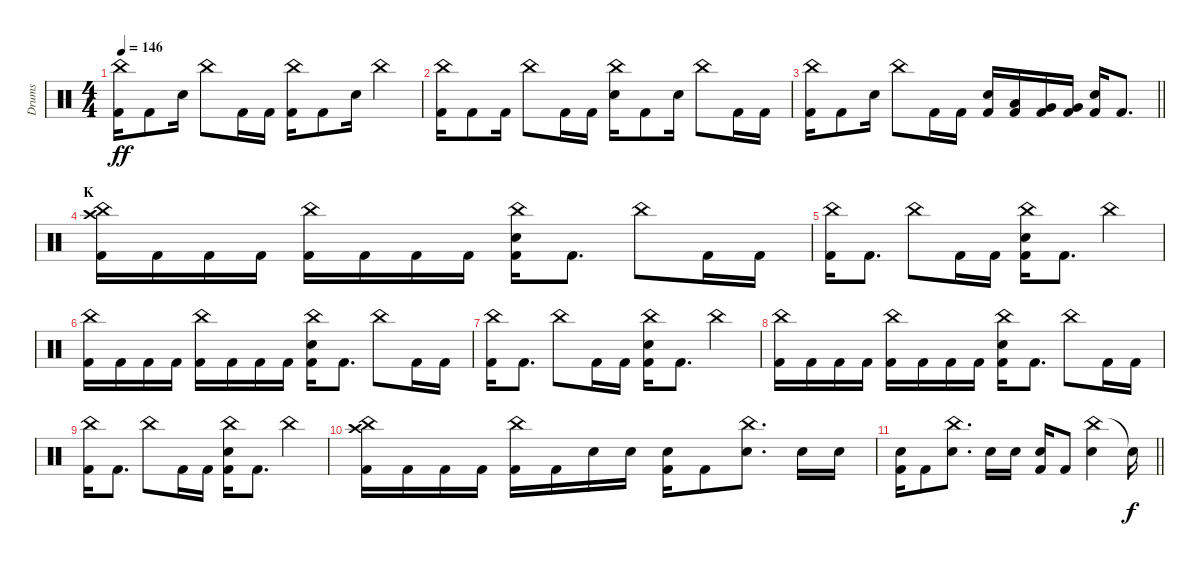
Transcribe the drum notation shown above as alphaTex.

\track ("Drums" "Drums") {instrument percussion}
\staff {score}
\articulation defaults
\ts (4 4)
\tempo 146
\clef neutral
\ks c
("China (hit)" "Kick (hit) 2").16{dy ff} "Kick (hit) 2".8 "Electric Snare (hit)".16 "China (hit)".8 "Kick (hit) 2".16 "Kick (hit) 2".16 ("China (hit)" "Kick (hit) 2").16 "Kick (hit) 2".8 "Electric Snare (hit)".16 "China (hit)".4 |
("China (hit)" "Kick (hit) 2").16 "Kick (hit) 2".8 "Kick (hit) 2".16 "China (hit)".8 "Kick (hit) 2".16 "Kick (hit) 2".16 ("China (hit)" "Electric Snare (hit)").16 "Kick (hit) 2".8 "Electric Snare (hit)".16 "China (hit)".8 "Kick (hit) 2".16 "Kick (hit) 2".16 |
\barLineRight lightlight
("China (hit)" "Kick (hit) 2").16 "Kick (hit) 2".8 "Electric Snare (hit)".16 "China (hit)".8 "Kick (hit) 2".16 "Kick (hit) 2".16 ("Electric Snare (hit)" "Kick (hit) 2").16 ("Low Tom (hit)" "Kick (hit) 2").16 ("Very Low Tom (hit)" "Kick (hit) 2").16 ("Very Low Tom (hit)" "Kick (hit) 2").16 ("Electric Snare (hit)" "Kick (hit) 2").16 "Kick (hit) 2".8{d} |
\section ("" "K")
("Crash high (hit)" "China (hit)" "Kick (hit) 2").16 "Kick (hit) 2".16 "Kick (hit) 2".16 "Kick (hit) 2".16 ("China (hit)" "Kick (hit) 2").16 "Kick (hit) 2".16 "Kick (hit) 2".16 "Kick (hit) 2".16 ("China (hit)" "Electric Snare (hit)" "Kick (hit) 2").16 "Kick (hit) 2".8{d} "China (hit)".8 "Kick (hit) 2".16 "Kick (hit) 2".16 |
("China (hit)" "Kick (hit) 2").16 "Kick (hit) 2".8{d} "China (hit)".8 "Kick (hit) 2".16 "Kick (hit) 2".16 ("China (hit)" "Electric Snare (hit)" "Kick (hit) 2").16 "Kick (hit) 2".8{d} "China (hit)".4 |
("China (hit)" "Kick (hit) 2").16 "Kick (hit) 2".16 "Kick (hit) 2".16 "Kick (hit) 2".16 ("China (hit)" "Kick (hit) 2").16 "Kick (hit) 2".16 "Kick (hit) 2".16 "Kick (hit) 2".16 ("China (hit)" "Electric Snare (hit)" "Kick (hit) 2").16 "Kick (hit) 2".8{d} "China (hit)".8 "Kick (hit) 2".16 "Kick (hit) 2".16 |
("China (hit)" "Kick (hit) 2").16 "Kick (hit) 2".8{d} "China (hit)".8 "Kick (hit) 2".16 "Kick (hit) 2".16 ("China (hit)" "Electric Snare (hit)" "Kick (hit) 2").16 "Kick (hit) 2".8{d} "China (hit)".4 |
("China (hit)" "Kick (hit) 2").16 "Kick (hit) 2".16 "Kick (hit) 2".16 "Kick (hit) 2".16 ("China (hit)" "Kick (hit) 2").16 "Kick (hit) 2".16 "Kick (hit) 2".16 "Kick (hit) 2".16 ("China (hit)" "Electric Snare (hit)" "Kick (hit) 2").16 "Kick (hit) 2".8{d} "China (hit)".8 "Kick (hit) 2".16 "Kick (hit) 2".16 |
("China (hit)" "Kick (hit) 2").16 "Kick (hit) 2".8{d} "China (hit)".8 "Kick (hit) 2".16 "Kick (hit) 2".16 ("China (hit)" "Electric Snare (hit)" "Kick (hit) 2").16 "Kick (hit) 2".8{d} "China (hit)".4 |
("Crash high (hit)" "China (hit)" "Kick (hit) 2").16 "Kick (hit) 2".16 "Kick (hit) 2".16 "Kick (hit) 2".16 ("China (hit)" "Kick (hit) 2").16 "Kick (hit) 2".16 "Electric Snare (hit)".16 "Electric Snare (hit)".16 ("Electric Snare (hit)" "Kick (hit) 2").16 "Kick (hit) 2".8 ("China (hit)" "Electric Snare (hit)").8{d} "Electric Snare (hit)".16 "Electric Snare (hit)".16 |
\barLineRight lightlight
("Electric Snare (hit)" "Kick (hit) 2").16 "Kick (hit) 2".8 ("China (hit)" "Electric Snare (hit)").8{d} "Electric Snare (hit)".16 "Electric Snare (hit)".16 ("Electric Snare (hit)" "Kick (hit) 2").16 "Kick (hit) 2".8 ("China (hit)" "Electric Snare (hit)").4 "Snare (hit)"{t}.16{dy f}
